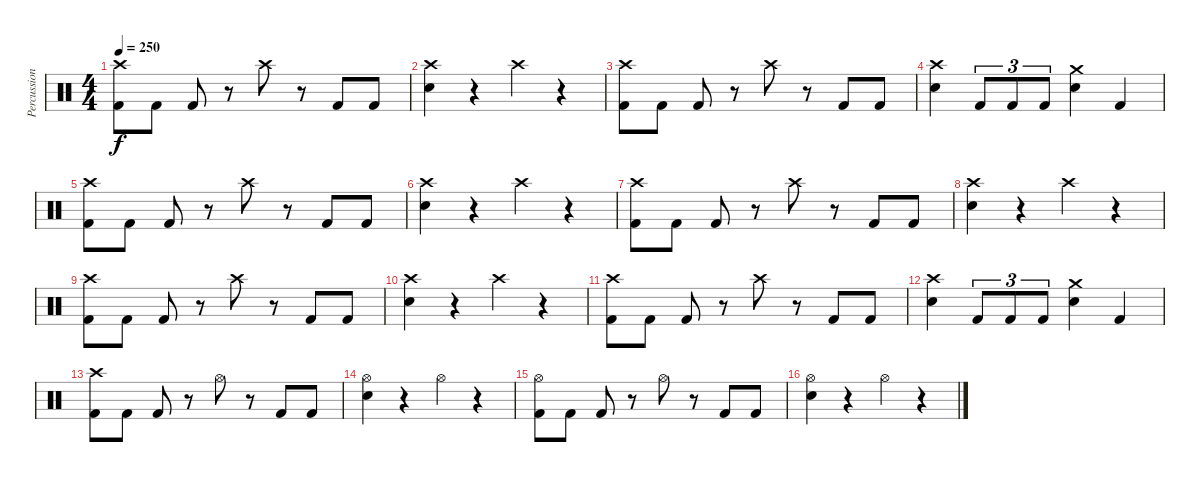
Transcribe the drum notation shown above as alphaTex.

\track ("Percussion" "Percussion") {instrument percussion}
\staff {score}
\articulation defaults
\ts (4 4)
\tempo 250
\clef neutral
\ks c
("Crash high (hit)" "Kick (hit) 2").8{dy f} "Kick (hit) 2".8 "Kick (hit) 2".8 r.8 "Crash high (hit)".8 r.8 "Kick (hit) 2".8 "Kick (hit) 2".8 |
("Crash high (hit)" "Electric Snare (hit)").4 r.4 "Crash high (hit)".4 r.4 |
("Crash high (hit)" "Kick (hit) 2").8 "Kick (hit) 2".8 "Kick (hit) 2".8 r.8 "Crash high (hit)".8 r.8 "Kick (hit) 2".8 "Kick (hit) 2".8 |
("Crash high (hit)" "Electric Snare (hit)").4 "Kick (hit) 2".8{tu (3 2)} "Kick (hit) 2".8{tu (3 2)} "Kick (hit) 2".8{tu (3 2)} ("Crash medium (hit)" "Electric Snare (hit)").4 "Kick (hit) 2".4 |
("Crash high (hit)" "Kick (hit) 2").8 "Kick (hit) 2".8 "Kick (hit) 2".8 r.8 "Crash high (hit)".8 r.8 "Kick (hit) 2".8 "Kick (hit) 2".8 |
("Crash high (hit)" "Electric Snare (hit)").4 r.4 "Crash high (hit)".4 r.4 |
("Crash high (hit)" "Kick (hit) 2").8 "Kick (hit) 2".8 "Kick (hit) 2".8 r.8 "Crash high (hit)".8 r.8 "Kick (hit) 2".8 "Kick (hit) 2".8 |
("Crash high (hit)" "Electric Snare (hit)").4 r.4 "Crash high (hit)".4 r.4 |
("Crash high (hit)" "Kick (hit) 2").8 "Kick (hit) 2".8 "Kick (hit) 2".8 r.8 "Crash high (hit)".8 r.8 "Kick (hit) 2".8 "Kick (hit) 2".8 |
("Crash high (hit)" "Electric Snare (hit)").4 r.4 "Crash high (hit)".4 r.4 |
("Crash high (hit)" "Kick (hit) 2").8 "Kick (hit) 2".8 "Kick (hit) 2".8 r.8 "Crash high (hit)".8 r.8 "Kick (hit) 2".8 "Kick (hit) 2".8 |
("Crash high (hit)" "Electric Snare (hit)").4 "Kick (hit) 2".8{tu (3 2)} "Kick (hit) 2".8{tu (3 2)} "Kick (hit) 2".8{tu (3 2)} ("Crash medium (hit)" "Electric Snare (hit)").4 "Kick (hit) 2".4 |
("Crash high (hit)" "Kick (hit) 2").8 "Kick (hit) 2".8 "Kick (hit) 2".8 r.8 "Hi-Hat (open)".8 r.8 "Kick (hit) 2".8 "Kick (hit) 2".8 |
("Hi-Hat (open)" "Electric Snare (hit)").4 r.4 "Hi-Hat (open)".4 r.4 |
("Hi-Hat (open)" "Kick (hit) 2").8 "Kick (hit) 2".8 "Kick (hit) 2".8 r.8 "Hi-Hat (open)".8 r.8 "Kick (hit) 2".8 "Kick (hit) 2".8 |
("Hi-Hat (open)" "Electric Snare (hit)").4 r.4 "Hi-Hat (open)".4 r.4
